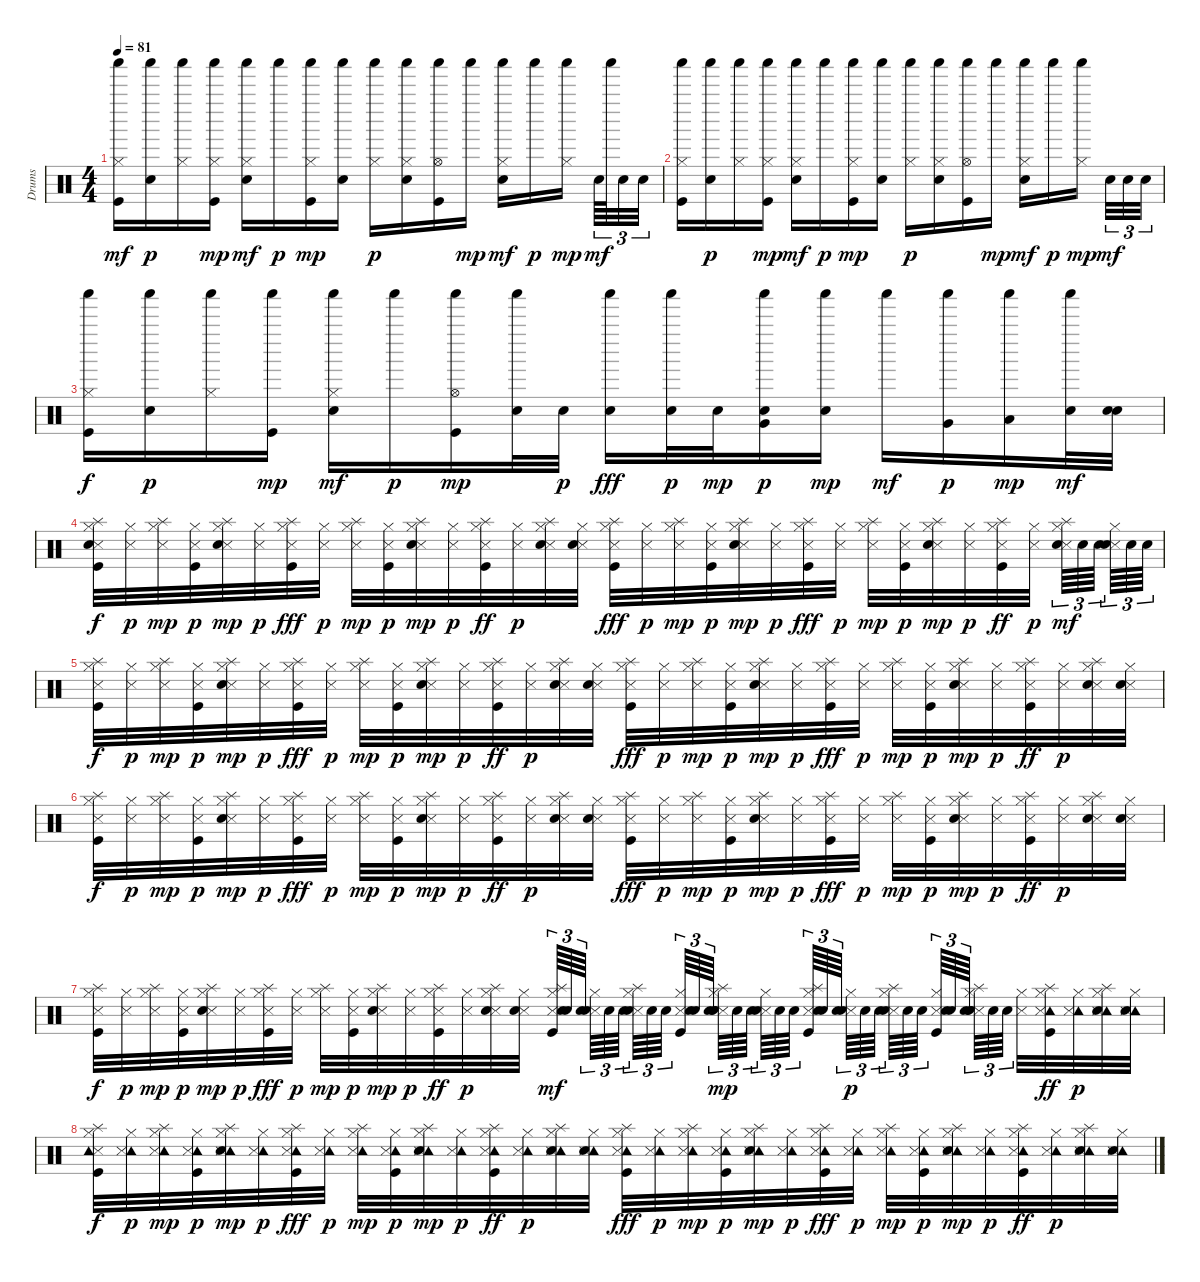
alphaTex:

\track ("Drums" "Drums") {instrument percussion}
\staff {score}
\articulation defaults
\ts (4 4)
\tempo 81
\clef neutral
\ks c
("Kick (hit)" "Hi-Hat (closed)" "Shaker (hit)").16{dy mf} ("Snare (hit) 2" "Shaker (hit)").16{dy p} ("Hi-Hat (closed)" "Shaker (hit)").16 ("Kick (hit)" "Hi-Hat (closed)" "Shaker (hit)").16{dy mp} ("Snare (hit) 2" "Hi-Hat (closed)" "Shaker (hit)").16{dy mf} "Shaker (hit)".16{dy p} ("Kick (hit)" "Hi-Hat (closed)" "Shaker (hit)").16{dy mp} ("Snare (hit) 2" "Shaker (hit)").16 ("Hi-Hat (closed)" "Shaker (hit)").16{dy p} ("Snare (hit) 2" "Hi-Hat (closed)" "Shaker (hit)").16 ("Kick (hit)" "Hi-Hat (open)" "Shaker (hit)").16 "Shaker (hit)".16{dy mp} ("Snare (hit) 2" "Hi-Hat (closed)" "Shaker (hit)").16{dy mf} "Shaker (hit)".16{dy p} ("Hi-Hat (closed)" "Shaker (hit)").16{dy mp} "Snare (hit) 2".64{tu (3 2) dy mf} "Shaker (hit)".64{tu (3 2)} "Snare (hit) 2".32{tu (3 2)} "Snare (hit) 2".32{tu (3 2)} |
("Kick (hit)" "Hi-Hat (closed)" "Shaker (hit)").16 ("Snare (hit) 2" "Shaker (hit)").16{dy p} ("Hi-Hat (closed)" "Shaker (hit)").16 ("Kick (hit)" "Hi-Hat (closed)" "Shaker (hit)").16{dy mp} ("Snare (hit) 2" "Hi-Hat (closed)" "Shaker (hit)").16{dy mf} "Shaker (hit)".16{dy p} ("Kick (hit)" "Hi-Hat (closed)" "Shaker (hit)").16{dy mp} ("Snare (hit) 2" "Shaker (hit)").16 ("Hi-Hat (closed)" "Shaker (hit)").16{dy p} ("Snare (hit) 2" "Hi-Hat (closed)" "Shaker (hit)").16 ("Kick (hit)" "Hi-Hat (open)" "Shaker (hit)").16 "Shaker (hit)".16{dy mp} ("Snare (hit) 2" "Hi-Hat (closed)" "Shaker (hit)").16{dy mf} "Shaker (hit)".16{dy p} ("Hi-Hat (closed)" "Shaker (hit)").16{dy mp} "Snare (hit) 2".32{tu (3 2) dy mf} "Snare (hit) 2".32{tu (3 2)} "Snare (hit) 2".32{tu (3 2)} |
("Hi-Hat (closed)" "Kick (hit)" "Shaker (hit)").16{dy f} ("Snare (hit) 2" "Shaker (hit)").16{dy p} ("Hi-Hat (closed)" "Shaker (hit)").16 ("Kick (hit)" "Shaker (hit)").16{dy mp} ("Snare (hit) 2" "Hi-Hat (closed)" "Shaker (hit)").16{dy mf} "Shaker (hit)".16{dy p} ("Kick (hit)" "Hi-Hat (open)" "Shaker (hit)").16{dy mp} ("Snare (hit) 2" "Shaker (hit)").32 "Snare (hit) 2".32{dy p} ("Snare (hit) 2" "Shaker (hit)").16{dy fff} ("Snare (hit) 2" "Shaker (hit)").32{dy p} "Snare (hit) 2".32{dy mp} ("Very Low Tom (hit)" "Snare (hit) 2" "Shaker (hit)").16{dy p} ("Snare (hit) 2" "Shaker (hit)").16{dy mp} "Shaker (hit)".16{dy mf} ("Very Low Tom (hit)" "Shaker (hit)").16{dy p} ("Low Floor Tom (hit)" "Shaker (hit)").16{dy mp} ("Shaker (hit)" "Electric Snare (hit)").32{dy mf} ("Electric Snare (hit)" "Electric Snare (hit)").32 |
("Splash (hit)" "Hi-Hat (closed)" "Snare (side stick) 3" "Kick (hit)" "Electric Snare (hit)").32{dy f} ("Hi-Hat (closed)" "Snare (side stick) 3").32{dy p} ("Splash (hit)" "Hi-Hat (closed)" "Snare (side stick) 3").32{dy mp} ("Hi-Hat (closed)" "Snare (side stick) 3" "Kick (hit)").32{dy p} ("Splash (hit)" "Hi-Hat (closed)" "Snare (side stick) 3" "Snare (hit) 2").32{dy mp} ("Hi-Hat (closed)" "Snare (side stick) 3").32{dy p} ("Splash (hit)" "Hi-Hat (closed)" "Snare (side stick) 3" "Kick (hit)").32{dy fff} ("Hi-Hat (closed)" "Snare (side stick) 3").32{dy p} ("Splash (hit)" "Hi-Hat (closed)" "Snare (side stick) 3").32{dy mp} ("Hi-Hat (closed)" "Snare (side stick) 3" "Kick (hit)").32{dy p} ("Splash (hit)" "Hi-Hat (closed)" "Snare (side stick) 3" "Snare (hit) 2").32{dy mp} ("Hi-Hat (closed)" "Snare (side stick) 3").32{dy p} ("Splash (hit)" "Hi-Hat (closed)" "Snare (side stick) 3" "Kick (hit)").32{dy ff} ("Hi-Hat (closed)" "Snare (side stick) 3").32{dy p} ("Splash (hit)" "Hi-Hat (closed)" "Snare (side stick) 3" "Snare (hit) 2").32 ("Hi-Hat (closed)" "Snare (side stick) 3" "Snare (hit) 2").32 ("Splash (hit)" "Hi-Hat (closed)" "Snare (side stick) 3" "Kick (hit)").32{dy fff} ("Hi-Hat (closed)" "Snare (side stick) 3").32{dy p} ("Splash (hit)" "Hi-Hat (closed)" "Snare (side stick) 3").32{dy mp} ("Hi-Hat (closed)" "Snare (side stick) 3" "Kick (hit)").32{dy p} ("Splash (hit)" "Hi-Hat (closed)" "Snare (side stick) 3" "Snare (hit) 2").32{dy mp} ("Hi-Hat (closed)" "Snare (side stick) 3").32{dy p} ("Splash (hit)" "Hi-Hat (closed)" "Snare (side stick) 3" "Kick (hit)").32{dy fff} ("Hi-Hat (closed)" "Snare (side stick) 3").32{dy p} ("Splash (hit)" "Hi-Hat (closed)" "Snare (side stick) 3").32{dy mp} ("Hi-Hat (closed)" "Snare (side stick) 3" "Kick (hit)").32{dy p} ("Splash (hit)" "Hi-Hat (closed)" "Snare (side stick) 3" "Snare (hit) 2").32{dy mp} ("Hi-Hat (closed)" "Snare (side stick) 3").32{dy p} ("Splash (hit)" "Hi-Hat (closed)" "Snare (side stick) 3" "Kick (hit)").32{dy ff} ("Hi-Hat (closed)" "Snare (side stick) 3").32{dy p} ("Splash (hit)" "Hi-Hat (closed)" "Snare (side stick) 3" "Electric Snare (hit)").64{tu (3 2) dy mf} "Electric Snare (hit)".64{tu (3 2)} "Electric Snare (hit)".64{tu (3 2)} ("Hi-Hat (closed)" "Snare (side stick) 3" "Electric Snare (hit)").64{tu (3 2)} "Electric Snare (hit)".64{tu (3 2)} "Electric Snare (hit)".64{tu (3 2)} |
("Splash (hit)" "Hi-Hat (closed)" "Snare (side stick) 3" "Kick (hit)").32{dy f} ("Hi-Hat (closed)" "Snare (side stick) 3").32{dy p} ("Splash (hit)" "Hi-Hat (closed)" "Snare (side stick) 3").32{dy mp} ("Hi-Hat (closed)" "Snare (side stick) 3" "Kick (hit)").32{dy p} ("Splash (hit)" "Hi-Hat (closed)" "Snare (side stick) 3" "Snare (hit) 2").32{dy mp} ("Hi-Hat (closed)" "Snare (side stick) 3").32{dy p} ("Splash (hit)" "Hi-Hat (closed)" "Snare (side stick) 3" "Kick (hit)").32{dy fff} ("Hi-Hat (closed)" "Snare (side stick) 3").32{dy p} ("Splash (hit)" "Hi-Hat (closed)" "Snare (side stick) 3").32{dy mp} ("Hi-Hat (closed)" "Snare (side stick) 3" "Kick (hit)").32{dy p} ("Splash (hit)" "Hi-Hat (closed)" "Snare (side stick) 3" "Snare (hit) 2").32{dy mp} ("Hi-Hat (closed)" "Snare (side stick) 3").32{dy p} ("Splash (hit)" "Hi-Hat (closed)" "Snare (side stick) 3" "Kick (hit)").32{dy ff} ("Hi-Hat (closed)" "Snare (side stick) 3").32{dy p} ("Splash (hit)" "Hi-Hat (closed)" "Snare (side stick) 3" "Snare (hit) 2").32 ("Hi-Hat (closed)" "Snare (side stick) 3" "Snare (hit) 2").32 ("Splash (hit)" "Hi-Hat (closed)" "Snare (side stick) 3" "Kick (hit)").32{dy fff} ("Hi-Hat (closed)" "Snare (side stick) 3").32{dy p} ("Splash (hit)" "Hi-Hat (closed)" "Snare (side stick) 3").32{dy mp} ("Hi-Hat (closed)" "Snare (side stick) 3" "Kick (hit)").32{dy p} ("Splash (hit)" "Hi-Hat (closed)" "Snare (side stick) 3" "Snare (hit) 2").32{dy mp} ("Hi-Hat (closed)" "Snare (side stick) 3").32{dy p} ("Splash (hit)" "Hi-Hat (closed)" "Snare (side stick) 3" "Kick (hit)").32{dy fff} ("Hi-Hat (closed)" "Snare (side stick) 3").32{dy p} ("Splash (hit)" "Hi-Hat (closed)" "Snare (side stick) 3").32{dy mp} ("Hi-Hat (closed)" "Snare (side stick) 3" "Kick (hit)").32{dy p} ("Splash (hit)" "Hi-Hat (closed)" "Snare (side stick) 3" "Snare (hit) 2").32{dy mp} ("Hi-Hat (closed)" "Snare (side stick) 3").32{dy p} ("Splash (hit)" "Hi-Hat (closed)" "Snare (side stick) 3" "Kick (hit)").32{dy ff} ("Hi-Hat (closed)" "Snare (side stick) 3").32{dy p} ("Splash (hit)" "Hi-Hat (closed)" "Snare (side stick) 3" "Snare (hit) 2").32 ("Hi-Hat (closed)" "Snare (side stick) 3" "Snare (hit) 2").32 |
("Splash (hit)" "Hi-Hat (closed)" "Snare (side stick) 3" "Kick (hit)").32{dy f} ("Hi-Hat (closed)" "Snare (side stick) 3").32{dy p} ("Splash (hit)" "Hi-Hat (closed)" "Snare (side stick) 3").32{dy mp} ("Hi-Hat (closed)" "Snare (side stick) 3" "Kick (hit)").32{dy p} ("Splash (hit)" "Hi-Hat (closed)" "Snare (side stick) 3" "Snare (hit) 2").32{dy mp} ("Hi-Hat (closed)" "Snare (side stick) 3").32{dy p} ("Splash (hit)" "Hi-Hat (closed)" "Snare (side stick) 3" "Kick (hit)").32{dy fff} ("Hi-Hat (closed)" "Snare (side stick) 3").32{dy p} ("Splash (hit)" "Hi-Hat (closed)" "Snare (side stick) 3").32{dy mp} ("Hi-Hat (closed)" "Snare (side stick) 3" "Kick (hit)").32{dy p} ("Splash (hit)" "Hi-Hat (closed)" "Snare (side stick) 3" "Snare (hit) 2").32{dy mp} ("Hi-Hat (closed)" "Snare (side stick) 3").32{dy p} ("Splash (hit)" "Hi-Hat (closed)" "Snare (side stick) 3" "Kick (hit)").32{dy ff} ("Hi-Hat (closed)" "Snare (side stick) 3").32{dy p} ("Splash (hit)" "Hi-Hat (closed)" "Snare (side stick) 3" "Snare (hit) 2").32 ("Hi-Hat (closed)" "Snare (side stick) 3" "Snare (hit) 2").32 ("Splash (hit)" "Hi-Hat (closed)" "Snare (side stick) 3" "Kick (hit)").32{dy fff} ("Hi-Hat (closed)" "Snare (side stick) 3").32{dy p} ("Splash (hit)" "Hi-Hat (closed)" "Snare (side stick) 3").32{dy mp} ("Hi-Hat (closed)" "Snare (side stick) 3" "Kick (hit)").32{dy p} ("Splash (hit)" "Hi-Hat (closed)" "Snare (side stick) 3" "Snare (hit) 2").32{dy mp} ("Hi-Hat (closed)" "Snare (side stick) 3").32{dy p} ("Splash (hit)" "Hi-Hat (closed)" "Snare (side stick) 3" "Kick (hit)").32{dy fff} ("Hi-Hat (closed)" "Snare (side stick) 3").32{dy p} ("Splash (hit)" "Hi-Hat (closed)" "Snare (side stick) 3").32{dy mp} ("Hi-Hat (closed)" "Snare (side stick) 3" "Kick (hit)").32{dy p} ("Splash (hit)" "Hi-Hat (closed)" "Snare (side stick) 3" "Snare (hit) 2").32{dy mp} ("Hi-Hat (closed)" "Snare (side stick) 3").32{dy p} ("Splash (hit)" "Hi-Hat (closed)" "Snare (side stick) 3" "Kick (hit)").32{dy ff} ("Hi-Hat (closed)" "Snare (side stick) 3").32{dy p} ("Splash (hit)" "Hi-Hat (closed)" "Snare (side stick) 3" "Snare (hit) 2").32 ("Hi-Hat (closed)" "Snare (side stick) 3" "Snare (hit) 2").32 |
("Splash (hit)" "Hi-Hat (closed)" "Snare (side stick) 3" "Kick (hit)").32{dy f} ("Hi-Hat (closed)" "Snare (side stick) 3").32{dy p} ("Splash (hit)" "Hi-Hat (closed)" "Snare (side stick) 3").32{dy mp} ("Hi-Hat (closed)" "Snare (side stick) 3" "Kick (hit)").32{dy p} ("Splash (hit)" "Hi-Hat (closed)" "Snare (side stick) 3" "Snare (hit) 2").32{dy mp} ("Hi-Hat (closed)" "Snare (side stick) 3").32{dy p} ("Splash (hit)" "Hi-Hat (closed)" "Snare (side stick) 3" "Kick (hit)").32{dy fff} ("Hi-Hat (closed)" "Snare (side stick) 3").32{dy p} ("Splash (hit)" "Hi-Hat (closed)" "Snare (side stick) 3").32{dy mp} ("Hi-Hat (closed)" "Snare (side stick) 3" "Kick (hit)").32{dy p} ("Splash (hit)" "Hi-Hat (closed)" "Snare (side stick) 3" "Snare (hit) 2").32{dy mp} ("Hi-Hat (closed)" "Snare (side stick) 3").32{dy p} ("Splash (hit)" "Hi-Hat (closed)" "Snare (side stick) 3" "Kick (hit)").32{dy ff} ("Hi-Hat (closed)" "Snare (side stick) 3").32{dy p} ("Splash (hit)" "Hi-Hat (closed)" "Snare (side stick) 3" "Snare (hit) 2").32 ("Hi-Hat (closed)" "Snare (side stick) 3" "Snare (hit) 2").32 ("Splash (hit)" "Hi-Hat (closed)" "Snare (side stick) 3" "Kick (hit)" "Electric Snare (hit)").64{tu (3 2) dy mf} "Electric Snare (hit)".64{tu (3 2)} "Electric Snare (hit)".64{tu (3 2)} ("Hi-Hat (closed)" "Snare (side stick) 3" "Electric Snare (hit)").64{tu (3 2)} "Electric Snare (hit)".64{tu (3 2)} "Electric Snare (hit)".64{tu (3 2)} ("Splash (hit)" "Hi-Hat (closed)" "Snare (side stick) 3" "Electric Snare (hit)").64{tu (3 2)} "Electric Snare (hit)".64{tu (3 2)} "Electric Snare (hit)".64{tu (3 2)} ("Hi-Hat (closed)" "Snare (side stick) 3" "Kick (hit)" "Electric Snare (hit)").64{tu (3 2)} "Electric Snare (hit)".64{tu (3 2)} "Electric Snare (hit)".64{tu (3 2)} ("Splash (hit)" "Hi-Hat (closed)" "Snare (side stick) 3" "Electric Snare (hit)" "Snare (hit) 2").64{tu (3 2) dy mp} "Electric Snare (hit)".64{tu (3 2)} "Electric Snare (hit)".64{tu (3 2)} ("Hi-Hat (closed)" "Snare (side stick) 3" "Electric Snare (hit)").64{tu (3 2)} "Electric Snare (hit)".64{tu (3 2)} "Electric Snare (hit)".64{tu (3 2)} ("Splash (hit)" "Hi-Hat (closed)" "Snare (side stick) 3" "Kick (hit)" "Electric Snare (hit)").64{tu (3 2)} "Electric Snare (hit)".64{tu (3 2)} "Electric Snare (hit)".64{tu (3 2)} ("Hi-Hat (closed)" "Snare (side stick) 3" "Electric Snare (hit)").64{tu (3 2) dy p} "Electric Snare (hit)".64{tu (3 2)} "Electric Snare (hit)".64{tu (3 2)} ("Splash (hit)" "Hi-Hat (closed)" "Snare (side stick) 3" "Electric Snare (hit)").64{tu (3 2)} "Electric Snare (hit)".64{tu (3 2)} "Electric Snare (hit)".64{tu (3 2)} ("Hi-Hat (closed)" "Snare (side stick) 3" "Kick (hit)" "Electric Snare (hit)").64{tu (3 2)} "Electric Snare (hit)".64{tu (3 2)} "Electric Snare (hit)".64{tu (3 2)} ("Splash (hit)" "Hi-Hat (closed)" "Snare (side stick) 3" "Electric Snare (hit)" "Snare (hit) 2").64{tu (3 2)} "Electric Snare (hit)".64{tu (3 2)} "Electric Snare (hit)".64{tu (3 2)} ("Hi-Hat (closed)" "Snare (side stick) 3").32 ("Tambourine (hit)" "Splash (hit)" "Hi-Hat (closed)" "Snare (side stick) 3" "Kick (hit)").32{dy ff} ("Tambourine (hit)" "Hi-Hat (closed)" "Snare (side stick) 3").32{dy p} ("Tambourine (hit)" "Splash (hit)" "Hi-Hat (closed)" "Snare (side stick) 3" "Snare (hit) 2").32 ("Tambourine (hit)" "Hi-Hat (closed)" "Snare (side stick) 3" "Snare (hit) 2").32 |
("Splash (hit)" "Hi-Hat (closed)" "Snare (side stick) 3" "Kick (hit)" "Tambourine (hit)").32{dy f} ("Tambourine (hit)" "Hi-Hat (closed)" "Snare (side stick) 3").32{dy p} ("Tambourine (hit)" "Splash (hit)" "Hi-Hat (closed)" "Snare (side stick) 3").32{dy mp} ("Tambourine (hit)" "Hi-Hat (closed)" "Snare (side stick) 3" "Kick (hit)").32{dy p} ("Tambourine (hit)" "Splash (hit)" "Hi-Hat (closed)" "Snare (side stick) 3" "Snare (hit) 2").32{dy mp} ("Tambourine (hit)" "Hi-Hat (closed)" "Snare (side stick) 3").32{dy p} ("Tambourine (hit)" "Splash (hit)" "Hi-Hat (closed)" "Snare (side stick) 3" "Kick (hit)").32{dy fff} ("Tambourine (hit)" "Hi-Hat (closed)" "Snare (side stick) 3").32{dy p} ("Tambourine (hit)" "Splash (hit)" "Hi-Hat (closed)" "Snare (side stick) 3").32{dy mp} ("Tambourine (hit)" "Hi-Hat (closed)" "Snare (side stick) 3" "Kick (hit)").32{dy p} ("Tambourine (hit)" "Splash (hit)" "Hi-Hat (closed)" "Snare (side stick) 3" "Snare (hit) 2").32{dy mp} ("Tambourine (hit)" "Hi-Hat (closed)" "Snare (side stick) 3").32{dy p} ("Tambourine (hit)" "Splash (hit)" "Hi-Hat (closed)" "Snare (side stick) 3" "Kick (hit)").32{dy ff} ("Tambourine (hit)" "Hi-Hat (closed)" "Snare (side stick) 3").32{dy p} ("Tambourine (hit)" "Splash (hit)" "Hi-Hat (closed)" "Snare (side stick) 3" "Snare (hit) 2").32 ("Tambourine (hit)" "Hi-Hat (closed)" "Snare (side stick) 3" "Snare (hit) 2").32 ("Tambourine (hit)" "Splash (hit)" "Hi-Hat (closed)" "Snare (side stick) 3" "Kick (hit)").32{dy fff} ("Tambourine (hit)" "Hi-Hat (closed)" "Snare (side stick) 3").32{dy p} ("Tambourine (hit)" "Splash (hit)" "Hi-Hat (closed)" "Snare (side stick) 3").32{dy mp} ("Tambourine (hit)" "Hi-Hat (closed)" "Snare (side stick) 3" "Kick (hit)").32{dy p} ("Tambourine (hit)" "Splash (hit)" "Hi-Hat (closed)" "Snare (side stick) 3" "Snare (hit) 2").32{dy mp} ("Tambourine (hit)" "Hi-Hat (closed)" "Snare (side stick) 3").32{dy p} ("Tambourine (hit)" "Splash (hit)" "Hi-Hat (closed)" "Snare (side stick) 3" "Kick (hit)").32{dy fff} ("Tambourine (hit)" "Hi-Hat (closed)" "Snare (side stick) 3").32{dy p} ("Tambourine (hit)" "Splash (hit)" "Hi-Hat (closed)" "Snare (side stick) 3").32{dy mp} ("Tambourine (hit)" "Hi-Hat (closed)" "Snare (side stick) 3" "Kick (hit)").32{dy p} ("Tambourine (hit)" "Splash (hit)" "Hi-Hat (closed)" "Snare (side stick) 3" "Snare (hit) 2").32{dy mp} ("Tambourine (hit)" "Hi-Hat (closed)" "Snare (side stick) 3").32{dy p} ("Tambourine (hit)" "Splash (hit)" "Hi-Hat (closed)" "Snare (side stick) 3" "Kick (hit)").32{dy ff} ("Tambourine (hit)" "Hi-Hat (closed)" "Snare (side stick) 3").32{dy p} ("Tambourine (hit)" "Splash (hit)" "Hi-Hat (closed)" "Snare (side stick) 3" "Snare (hit) 2").32 ("Tambourine (hit)" "Hi-Hat (closed)" "Snare (side stick) 3" "Snare (hit) 2").32
